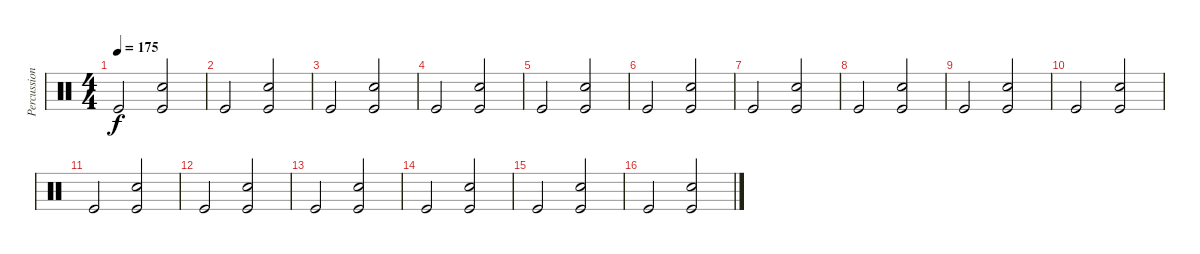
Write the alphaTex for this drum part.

\track ("Percussioni" "Percussion") {instrument percussion}
\staff {score}
\articulation defaults
\ts (4 4)
\tempo 175
\clef neutral
\ks c "Kick (hit)".2{dy f}
("Snare (hit) 2" "Kick (hit)").2 |
"Kick (hit)".2 ("Snare (hit) 2" "Kick (hit)").2 |
"Kick (hit)".2 ("Snare (hit) 2" "Kick (hit)").2 |
"Kick (hit)".2 ("Snare (hit) 2" "Kick (hit)").2 |
"Kick (hit)".2 ("Snare (hit) 2" "Kick (hit)").2 |
"Kick (hit)".2 ("Snare (hit) 2" "Kick (hit)").2 |
"Kick (hit)".2 ("Snare (hit) 2" "Kick (hit)").2 |
"Kick (hit)".2 ("Snare (hit) 2" "Kick (hit)").2 |
"Kick (hit)".2 ("Snare (hit) 2" "Kick (hit)").2 |
"Kick (hit)".2 ("Snare (hit) 2" "Kick (hit)").2 |
"Kick (hit)".2 ("Snare (hit) 2" "Kick (hit)").2 |
"Kick (hit)".2 ("Snare (hit) 2" "Kick (hit)").2 |
"Kick (hit)".2 ("Snare (hit) 2" "Kick (hit)").2 |
"Kick (hit)".2 ("Snare (hit) 2" "Kick (hit)").2 |
"Kick (hit)".2 ("Snare (hit) 2" "Kick (hit)").2 |
"Kick (hit)".2 ("Snare (hit) 2" "Kick (hit)").2
